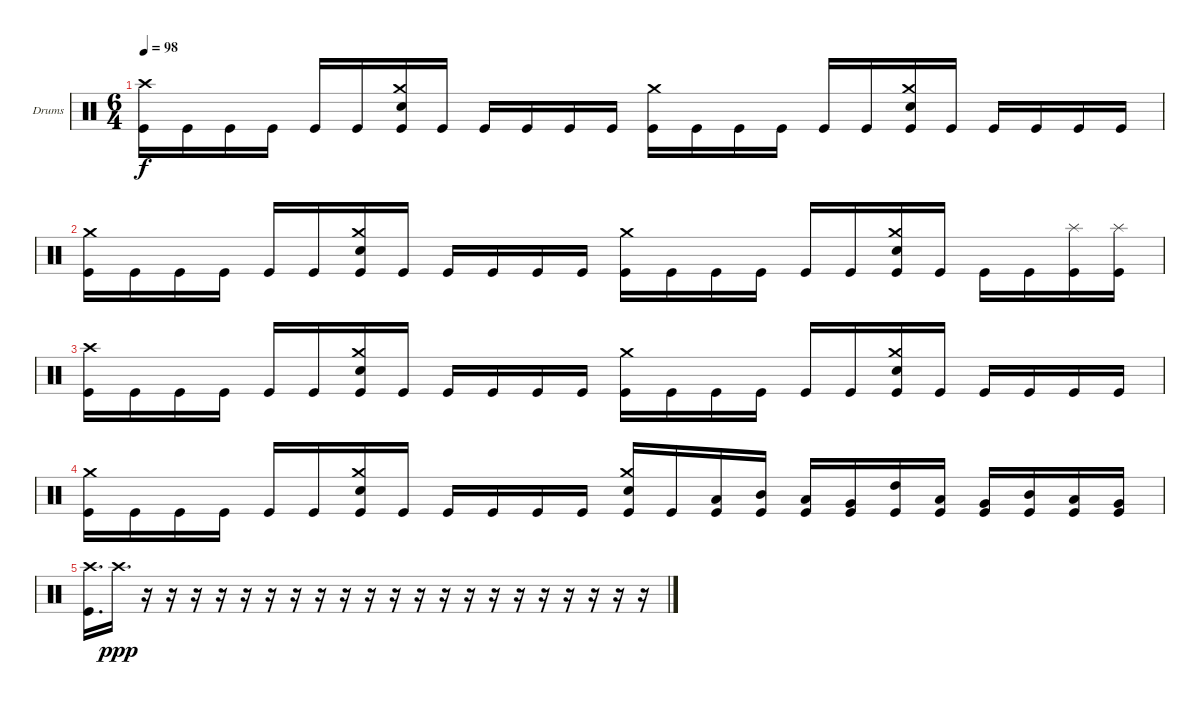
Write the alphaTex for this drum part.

\bracketExtendMode groupsimilarinstruments
\firstSystemTrackNameOrientation horizontal
\otherSystemsTrackNameOrientation horizontal
\track ("Drumkit" "Drums") {instrument percussion}
\staff {score}
\articulation defaults
\ts (6 4)
\tempo 98
\clef neutral
\ks c
("Crash high (hit)" "Kick (hit)").16{dy f} "Kick (hit)".16 "Kick (hit)".16 "Kick (hit)".16 "Kick (hit)".16 "Kick (hit)".16 ("Crash medium (hit)" "Snare (hit) 2" "Kick (hit)").16 "Kick (hit)".16 "Kick (hit)".16 "Kick (hit)".16 "Kick (hit)".16 "Kick (hit)".16 ("Crash medium (hit)" "Kick (hit)").16 "Kick (hit)".16 "Kick (hit)".16 "Kick (hit)".16 "Kick (hit)".16 "Kick (hit)".16 ("Crash medium (hit)" "Snare (hit) 2" "Kick (hit)").16 "Kick (hit)".16 "Kick (hit)".16 "Kick (hit)".16 "Kick (hit)".16 "Kick (hit)".16 |
("Crash medium (hit)" "Kick (hit)").16 "Kick (hit)".16 "Kick (hit)".16 "Kick (hit)".16 "Kick (hit)".16 "Kick (hit)".16 ("Crash medium (hit)" "Snare (hit) 2" "Kick (hit)").16 "Kick (hit)".16 "Kick (hit)".16 "Kick (hit)".16 "Kick (hit)".16 "Kick (hit)".16 ("Crash medium (hit)" "Kick (hit)").16 "Kick (hit)".16 "Kick (hit)".16 "Kick (hit)".16 "Kick (hit)".16 "Kick (hit)".16 ("Crash medium (hit)" "Snare (hit) 2" "Kick (hit)").16 "Kick (hit)".16 "Kick (hit)".16 "Kick (hit)".16 ("Splash (hit)" "Kick (hit)").16 ("Splash (hit)" "Kick (hit)").16 |
("Crash high (hit)" "Kick (hit)").16 "Kick (hit)".16 "Kick (hit)".16 "Kick (hit)".16 "Kick (hit)".16 "Kick (hit)".16 ("Crash medium (hit)" "Snare (hit) 2" "Kick (hit)").16 "Kick (hit)".16 "Kick (hit)".16 "Kick (hit)".16 "Kick (hit)".16 "Kick (hit)".16 ("Crash medium (hit)" "Kick (hit)").16 "Kick (hit)".16 "Kick (hit)".16 "Kick (hit)".16 "Kick (hit)".16 "Kick (hit)".16 ("Crash medium (hit)" "Snare (hit) 2" "Kick (hit)").16 "Kick (hit)".16 "Kick (hit)".16 "Kick (hit)".16 "Kick (hit)".16 "Kick (hit)".16 |
("Crash medium (hit)" "Kick (hit)").16 "Kick (hit)".16 "Kick (hit)".16 "Kick (hit)".16 "Kick (hit)".16 "Kick (hit)".16 ("Crash medium (hit)" "Snare (hit) 2" "Kick (hit)").16 "Kick (hit)".16 "Kick (hit)".16 "Kick (hit)".16 "Kick (hit)".16 "Kick (hit)".16 ("Crash medium (hit)" "Snare (hit) 2" "Kick (hit)").16 "Kick (hit)".16 ("Low Tom (hit)" "Kick (hit)").16 ("Mid Tom (hit)" "Kick (hit)").16 ("Low Tom (hit)" "Kick (hit)").16 ("Very Low Tom (hit)" "Kick (hit)").16 ("High Tom (hit)" "Kick (hit)").16 ("Low Tom (hit)" "Kick (hit)").16 ("Very Low Tom (hit)" "Kick (hit)").16 ("Mid Tom (hit)" "Kick (hit)").16 ("Low Tom (hit)" "Kick (hit)").16 ("Very Low Tom (hit)" "Kick (hit)").16 |
("Crash high (hit)" "Kick (hit)").16{d} "Crash high (hit)".16{d dy ppp} r.16 r.16 r.16 r.16 r.16 r.16 r.16 r.16 r.16 r.16 r.16 r.16 r.16 r.16 r.16 r.16 r.16 r.16 r.16 r.16 r.16
